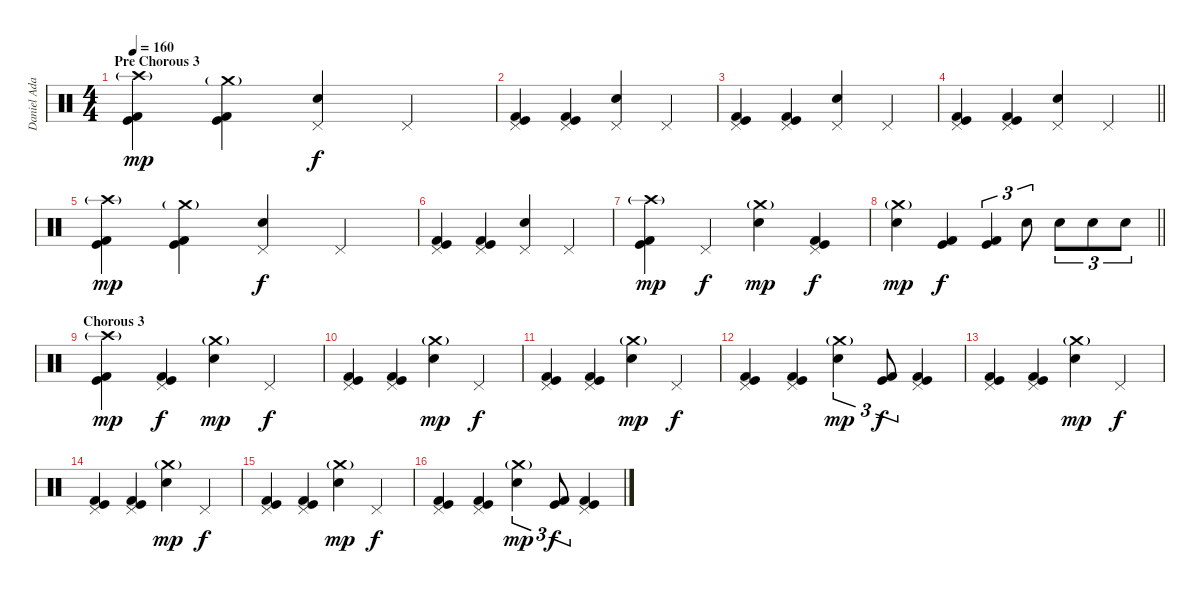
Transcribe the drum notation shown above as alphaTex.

\track ("Daniel Adair" "Daniel Ada") {instrument percussion}
\staff {score}
\articulation defaults
\ts (4 4)
\section ("" "Pre Chorous 3")
\tempo 160
\clef neutral
\ks c
("Crash high (hit)"{g} "Kick (hit)" "Kick (hit) 2").4{dy mp} ("Crash medium (hit)"{g} "Kick (hit)" "Kick (hit) 2").4 ("Pedal Hi-Hat (hit)" "Electric Snare (hit)").4{dy f} "Pedal Hi-Hat (hit)".4 |
("Pedal Hi-Hat (hit)" "Kick (hit)" "Kick (hit) 2").4 ("Pedal Hi-Hat (hit)" "Kick (hit)" "Kick (hit) 2").4 ("Pedal Hi-Hat (hit)" "Electric Snare (hit)").4 "Pedal Hi-Hat (hit)".4 |
("Pedal Hi-Hat (hit)" "Kick (hit)" "Kick (hit) 2").4 ("Pedal Hi-Hat (hit)" "Kick (hit)" "Kick (hit) 2").4 ("Pedal Hi-Hat (hit)" "Electric Snare (hit)").4 "Pedal Hi-Hat (hit)".4 |
\barLineRight lightlight
("Pedal Hi-Hat (hit)" "Kick (hit)" "Kick (hit) 2").4 ("Pedal Hi-Hat (hit)" "Kick (hit)" "Kick (hit) 2").4 ("Pedal Hi-Hat (hit)" "Electric Snare (hit)").4 "Pedal Hi-Hat (hit)".4 |
("Crash high (hit)"{g} "Kick (hit)" "Kick (hit) 2").4{dy mp} ("Crash medium (hit)"{g} "Kick (hit)" "Kick (hit) 2").4 ("Pedal Hi-Hat (hit)" "Electric Snare (hit)").4{dy f} "Pedal Hi-Hat (hit)".4 |
("Pedal Hi-Hat (hit)" "Kick (hit)" "Kick (hit) 2").4 ("Pedal Hi-Hat (hit)" "Kick (hit)" "Kick (hit) 2").4 ("Pedal Hi-Hat (hit)" "Electric Snare (hit)").4 "Pedal Hi-Hat (hit)".4 |
("Crash high (hit)"{g} "Kick (hit)" "Kick (hit) 2").4{dy mp} "Pedal Hi-Hat (hit)".4{dy f} ("Crash medium (hit)"{g} "Electric Snare (hit)").4{dy mp} ("Pedal Hi-Hat (hit)" "Kick (hit)" "Kick (hit) 2").4{dy f} |
\barLineRight lightlight
("Crash medium (hit)"{g} "Electric Snare (hit)").4{dy mp} ("Kick (hit)" "Kick (hit) 2").4{dy f} ("Kick (hit)" "Kick (hit) 2").4{tu (3 2)} "Electric Snare (hit)".8{tu (3 2)} "Electric Snare (hit)".8{tu (3 2)} "Electric Snare (hit)".8{tu (3 2)} "Electric Snare (hit)".8{tu (3 2)} |
\section ("" "Chorous 3")
("Crash high (hit)"{g} "Kick (hit)" "Kick (hit) 2").4{dy mp} ("Pedal Hi-Hat (hit)" "Kick (hit)" "Kick (hit) 2").4{dy f} ("Crash medium (hit)"{g} "Electric Snare (hit)").4{dy mp} "Pedal Hi-Hat (hit)".4{dy f} |
("Pedal Hi-Hat (hit)" "Kick (hit)" "Kick (hit) 2").4 ("Pedal Hi-Hat (hit)" "Kick (hit)" "Kick (hit) 2").4 ("Crash medium (hit)"{g} "Electric Snare (hit)").4{dy mp} "Pedal Hi-Hat (hit)".4{dy f} |
("Pedal Hi-Hat (hit)" "Kick (hit)" "Kick (hit) 2").4 ("Pedal Hi-Hat (hit)" "Kick (hit)" "Kick (hit) 2").4 ("Crash medium (hit)"{g} "Electric Snare (hit)").4{dy mp} "Pedal Hi-Hat (hit)".4{dy f} |
("Pedal Hi-Hat (hit)" "Kick (hit)" "Kick (hit) 2").4 ("Pedal Hi-Hat (hit)" "Kick (hit)" "Kick (hit) 2").4 ("Crash medium (hit)"{g} "Electric Snare (hit)").4{tu (3 2) dy mp} ("Kick (hit)" "Kick (hit) 2").8{tu (3 2) dy f} ("Pedal Hi-Hat (hit)" "Kick (hit)" "Kick (hit) 2").4 |
("Pedal Hi-Hat (hit)" "Kick (hit)" "Kick (hit) 2").4 ("Pedal Hi-Hat (hit)" "Kick (hit)" "Kick (hit) 2").4 ("Crash medium (hit)"{g} "Electric Snare (hit)").4{dy mp} "Pedal Hi-Hat (hit)".4{dy f} |
("Pedal Hi-Hat (hit)" "Kick (hit)" "Kick (hit) 2").4 ("Pedal Hi-Hat (hit)" "Kick (hit)" "Kick (hit) 2").4 ("Crash medium (hit)"{g} "Electric Snare (hit)").4{dy mp} "Pedal Hi-Hat (hit)".4{dy f} |
("Pedal Hi-Hat (hit)" "Kick (hit)" "Kick (hit) 2").4 ("Pedal Hi-Hat (hit)" "Kick (hit)" "Kick (hit) 2").4 ("Crash medium (hit)"{g} "Electric Snare (hit)").4{dy mp} "Pedal Hi-Hat (hit)".4{dy f} |
("Pedal Hi-Hat (hit)" "Kick (hit)" "Kick (hit) 2").4 ("Pedal Hi-Hat (hit)" "Kick (hit)" "Kick (hit) 2").4 ("Crash medium (hit)"{g} "Electric Snare (hit)").4{tu (3 2) dy mp} ("Kick (hit)" "Kick (hit) 2").8{tu (3 2) dy f} ("Pedal Hi-Hat (hit)" "Kick (hit)" "Kick (hit) 2").4
